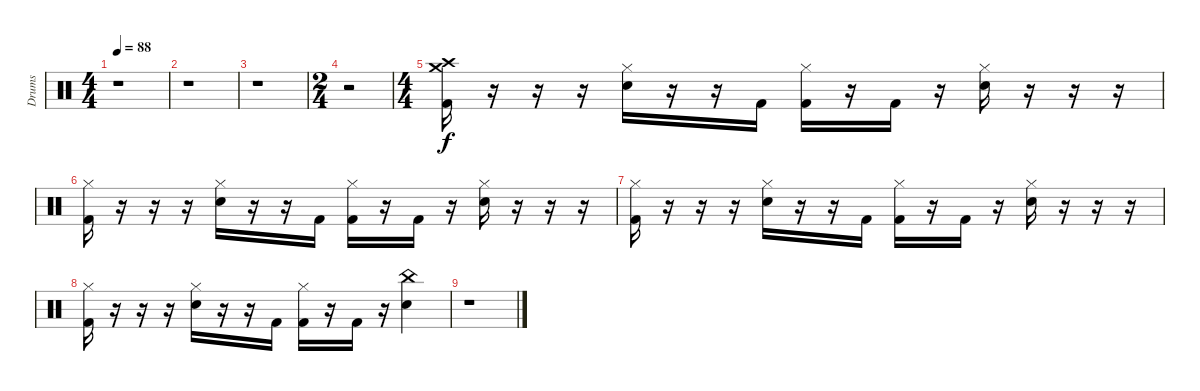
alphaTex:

\track ("Drums" "Drums") {instrument percussion}
\staff {score}
\articulation defaults
\ts (4 4)
\tempo 88
\clef neutral
\ks c
r.1{dy f} |
r.1 |
r.1 |
\ts (2 4)
r.2 |
\ts (4 4)
("Crash high (hit)" "Crash medium (hit)" "Kick (hit) 2").16 r.16 r.16 r.16 ("Hi-Hat (closed)" "Electric Snare (hit)").16 r.16 r.16 "Kick (hit) 2".16 ("Hi-Hat (closed)" "Kick (hit) 2").16 r.16 "Kick (hit) 2".16 r.16 ("Hi-Hat (closed)" "Electric Snare (hit)").16 r.16 r.16 r.16 |
("Hi-Hat (closed)" "Kick (hit) 2").16 r.16 r.16 r.16 ("Hi-Hat (closed)" "Electric Snare (hit)").16 r.16 r.16 "Kick (hit) 2".16 ("Hi-Hat (closed)" "Kick (hit) 2").16 r.16 "Kick (hit) 2".16 r.16 ("Hi-Hat (closed)" "Electric Snare (hit)").16 r.16 r.16 r.16 |
("Hi-Hat (closed)" "Kick (hit) 2").16 r.16 r.16 r.16 ("Hi-Hat (closed)" "Electric Snare (hit)").16 r.16 r.16 "Kick (hit) 2".16 ("Hi-Hat (closed)" "Kick (hit) 2").16 r.16 "Kick (hit) 2".16 r.16 ("Hi-Hat (closed)" "Electric Snare (hit)").16 r.16 r.16 r.16 |
("Hi-Hat (closed)" "Kick (hit) 2").16 r.16 r.16 r.16 ("Hi-Hat (closed)" "Electric Snare (hit)").16 r.16 r.16 "Kick (hit) 2".16 ("Hi-Hat (closed)" "Kick (hit) 2").16 r.16 "Kick (hit) 2".16 r.16 ("China (hit)" "Snare (hit) 2").4 |
r.1
